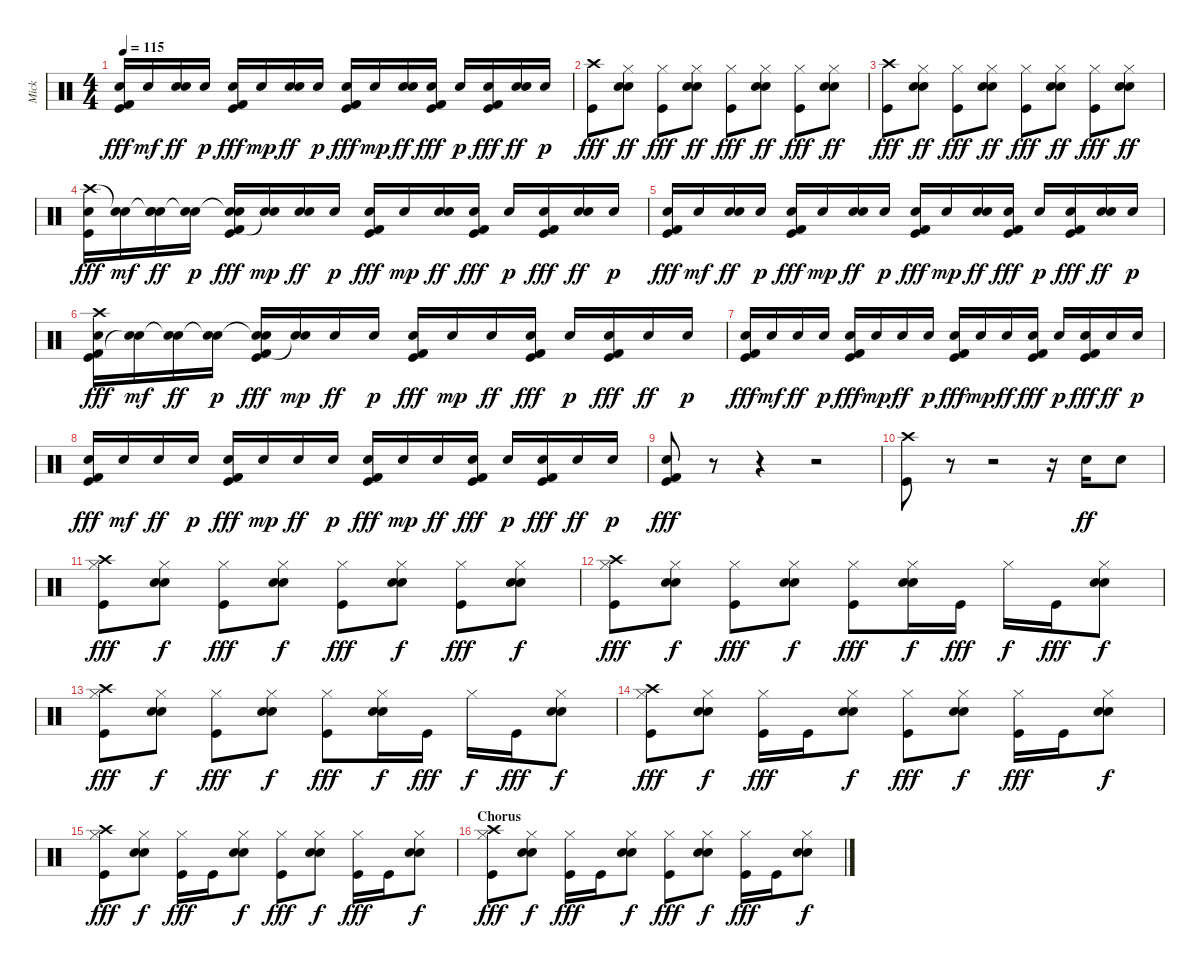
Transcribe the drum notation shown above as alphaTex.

\track ("Mick" "Mick") {instrument percussion}
\staff {score}
\articulation defaults
\ts (4 4)
\tempo 115
\clef neutral
\ks c
("Kick (hit) 2" "Electric Snare (hit)" "Kick (hit)").16{dy fff} "Electric Snare (hit)".16{dy mf} ("Hand Clap (hit)" "Electric Snare (hit)").16{dy ff} "Electric Snare (hit)".16{dy p} ("Kick (hit) 2" "Electric Snare (hit)" "Kick (hit)").16{dy fff} "Electric Snare (hit)".16{dy mp} ("Hand Clap (hit)" "Electric Snare (hit)").16{dy ff} "Electric Snare (hit)".16{dy p} ("Kick (hit) 2" "Electric Snare (hit)" "Kick (hit)").16{dy fff} "Electric Snare (hit)".16{dy mp} ("Hand Clap (hit)" "Electric Snare (hit)").16{dy ff} ("Kick (hit) 2" "Electric Snare (hit)" "Kick (hit)").16{dy fff} "Electric Snare (hit)".16{dy p} ("Kick (hit) 2" "Electric Snare (hit)" "Kick (hit)").16{dy fff} ("Hand Clap (hit)" "Electric Snare (hit)").16{dy ff} "Electric Snare (hit)".16{dy p} |
("Crash high (hit)" "Kick (hit)").8{dy fff} ("Hand Clap (hit)" "Hi-Hat (closed)" "Electric Snare (hit)").8{dy ff} ("Hi-Hat (closed)" "Kick (hit)").8{dy fff} ("Hand Clap (hit)" "Hi-Hat (closed)" "Electric Snare (hit)").8{dy ff} ("Hi-Hat (closed)" "Kick (hit)").8{dy fff} ("Hand Clap (hit)" "Hi-Hat (closed)" "Electric Snare (hit)").8{dy ff} ("Hi-Hat (closed)" "Kick (hit)").8{dy fff} ("Hand Clap (hit)" "Hi-Hat (closed)" "Electric Snare (hit)").8{dy ff} |
("Crash high (hit)" "Kick (hit)").8{dy fff} ("Hand Clap (hit)" "Hi-Hat (closed)" "Electric Snare (hit)").8{dy ff} ("Hi-Hat (closed)" "Kick (hit)").8{dy fff} ("Hand Clap (hit)" "Hi-Hat (closed)" "Electric Snare (hit)").8{dy ff} ("Hi-Hat (closed)" "Kick (hit)").8{dy fff} ("Hand Clap (hit)" "Hi-Hat (closed)" "Electric Snare (hit)").8{dy ff} ("Hi-Hat (closed)" "Kick (hit)").8{dy fff} ("Hand Clap (hit)" "Hi-Hat (closed)" "Electric Snare (hit)").8{dy ff} |
("Crash high (hit)" "Electric Snare (hit)" "Kick (hit)").16{dy fff} ("Snare (hit)"{t} "Electric Snare (hit)").16{dy mf} ("Hand Clap (hit)" "Snare (hit)"{t} "Electric Snare (hit)").16{dy ff} ("Snare (hit)"{t} "Electric Snare (hit)").16{dy p} ("Kick (hit) 2" "Snare (hit)"{t} "Electric Snare (hit)" "Kick (hit)").16{dy fff} ("Snare (hit)"{t} "Electric Snare (hit)").16{dy mp} ("Hand Clap (hit)" "Electric Snare (hit)").16{dy ff} "Electric Snare (hit)".16{dy p} ("Kick (hit) 2" "Electric Snare (hit)" "Kick (hit)").16{dy fff} "Electric Snare (hit)".16{dy mp} ("Hand Clap (hit)" "Electric Snare (hit)").16{dy ff} ("Kick (hit) 2" "Electric Snare (hit)" "Kick (hit)").16{dy fff} "Electric Snare (hit)".16{dy p} ("Kick (hit) 2" "Electric Snare (hit)" "Kick (hit)").16{dy fff} ("Hand Clap (hit)" "Electric Snare (hit)").16{dy ff} "Electric Snare (hit)".16{dy p} |
("Kick (hit) 2" "Electric Snare (hit)" "Kick (hit)").16{dy fff} "Electric Snare (hit)".16{dy mf} ("Hand Clap (hit)" "Electric Snare (hit)").16{dy ff} "Electric Snare (hit)".16{dy p} ("Kick (hit) 2" "Electric Snare (hit)" "Kick (hit)").16{dy fff} "Electric Snare (hit)".16{dy mp} ("Hand Clap (hit)" "Electric Snare (hit)").16{dy ff} "Electric Snare (hit)".16{dy p} ("Kick (hit) 2" "Electric Snare (hit)" "Kick (hit)").16{dy fff} "Electric Snare (hit)".16{dy mp} ("Hand Clap (hit)" "Electric Snare (hit)").16{dy ff} ("Kick (hit) 2" "Electric Snare (hit)" "Kick (hit)").16{dy fff} "Electric Snare (hit)".16{dy p} ("Kick (hit) 2" "Electric Snare (hit)" "Kick (hit)").16{dy fff} ("Hand Clap (hit)" "Electric Snare (hit)").16{dy ff} "Electric Snare (hit)".16{dy p} |
("Kick (hit) 2" "Crash high (hit)" "Electric Snare (hit)" "Kick (hit)").16{dy fff} ("Snare (hit)"{t} "Electric Snare (hit)").16{dy mf} ("Snare (hit)"{t} "Electric Snare (hit)").16{dy ff} ("Snare (hit)"{t} "Electric Snare (hit)").16{dy p} ("Kick (hit) 2" "Snare (hit)"{t} "Electric Snare (hit)" "Kick (hit)").16{dy fff} ("Snare (hit)"{t} "Electric Snare (hit)").16{dy mp} "Electric Snare (hit)".16{dy ff} "Electric Snare (hit)".16{dy p} ("Kick (hit) 2" "Electric Snare (hit)" "Kick (hit)").16{dy fff} "Electric Snare (hit)".16{dy mp} "Electric Snare (hit)".16{dy ff} ("Kick (hit) 2" "Electric Snare (hit)" "Kick (hit)").16{dy fff} "Electric Snare (hit)".16{dy p} ("Kick (hit) 2" "Electric Snare (hit)" "Kick (hit)").16{dy fff} "Electric Snare (hit)".16{dy ff} "Electric Snare (hit)".16{dy p} |
("Kick (hit) 2" "Electric Snare (hit)" "Kick (hit)").16{dy fff} "Electric Snare (hit)".16{dy mf} "Electric Snare (hit)".16{dy ff} "Electric Snare (hit)".16{dy p} ("Kick (hit) 2" "Electric Snare (hit)" "Kick (hit)").16{dy fff} "Electric Snare (hit)".16{dy mp} "Electric Snare (hit)".16{dy ff} "Electric Snare (hit)".16{dy p} ("Kick (hit) 2" "Electric Snare (hit)" "Kick (hit)").16{dy fff} "Electric Snare (hit)".16{dy mp} "Electric Snare (hit)".16{dy ff} ("Kick (hit) 2" "Electric Snare (hit)" "Kick (hit)").16{dy fff} "Electric Snare (hit)".16{dy p} ("Kick (hit) 2" "Electric Snare (hit)" "Kick (hit)").16{dy fff} "Electric Snare (hit)".16{dy ff} "Electric Snare (hit)".16{dy p} |
("Kick (hit) 2" "Electric Snare (hit)" "Kick (hit)").16{dy fff} "Electric Snare (hit)".16{dy mf} "Electric Snare (hit)".16{dy ff} "Electric Snare (hit)".16{dy p} ("Kick (hit) 2" "Electric Snare (hit)" "Kick (hit)").16{dy fff} "Electric Snare (hit)".16{dy mp} "Electric Snare (hit)".16{dy ff} "Electric Snare (hit)".16{dy p} ("Kick (hit) 2" "Electric Snare (hit)" "Kick (hit)").16{dy fff} "Electric Snare (hit)".16{dy mp} "Electric Snare (hit)".16{dy ff} ("Kick (hit) 2" "Electric Snare (hit)" "Kick (hit)").16{dy fff} "Electric Snare (hit)".16{dy p} ("Kick (hit) 2" "Electric Snare (hit)" "Kick (hit)").16{dy fff} "Electric Snare (hit)".16{dy ff} "Electric Snare (hit)".16{dy p} |
("Kick (hit) 2" "Electric Snare (hit)" "Kick (hit)").8{dy fff} r.8 r.4 r.2 |
("Crash high (hit)" "Kick (hit)").8 r.8 r.2 r.16 "Electric Snare (hit)".16{dy ff} "Electric Snare (hit)".8 |
("Crash high (hit)" "Hi-Hat (closed)" "Kick (hit)").8{dy fff} ("Hand Clap (hit)" "Hi-Hat (closed)" "Electric Snare (hit)").8{dy f} ("Hi-Hat (closed)" "Kick (hit)").8{dy fff} ("Hand Clap (hit)" "Hi-Hat (closed)" "Electric Snare (hit)").8{dy f} ("Hi-Hat (closed)" "Kick (hit)").8{dy fff} ("Hand Clap (hit)" "Hi-Hat (closed)" "Electric Snare (hit)").8{dy f} ("Hi-Hat (closed)" "Kick (hit)").8{dy fff} ("Hand Clap (hit)" "Hi-Hat (closed)" "Electric Snare (hit)").8{dy f} |
("Crash high (hit)" "Hi-Hat (closed)" "Kick (hit)").8{dy fff} ("Hand Clap (hit)" "Hi-Hat (closed)" "Electric Snare (hit)").8{dy f} ("Hi-Hat (closed)" "Kick (hit)").8{dy fff} ("Hand Clap (hit)" "Hi-Hat (closed)" "Electric Snare (hit)").8{dy f} ("Hi-Hat (closed)" "Kick (hit)").8{dy fff} ("Hand Clap (hit)" "Hi-Hat (closed)" "Electric Snare (hit)").16{dy f} "Kick (hit)".16{dy fff} "Hi-Hat (closed)".16{dy f} "Kick (hit)".16{dy fff} ("Hand Clap (hit)" "Hi-Hat (closed)" "Electric Snare (hit)").8{dy f} |
("Crash high (hit)" "Hi-Hat (closed)" "Kick (hit)").8{dy fff} ("Hand Clap (hit)" "Hi-Hat (closed)" "Electric Snare (hit)").8{dy f} ("Hi-Hat (closed)" "Kick (hit)").8{dy fff} ("Hand Clap (hit)" "Hi-Hat (closed)" "Electric Snare (hit)").8{dy f} ("Hi-Hat (closed)" "Kick (hit)").8{dy fff} ("Hand Clap (hit)" "Hi-Hat (closed)" "Electric Snare (hit)").16{dy f} "Kick (hit)".16{dy fff} "Hi-Hat (closed)".16{dy f} "Kick (hit)".16{dy fff} ("Hand Clap (hit)" "Hi-Hat (closed)" "Electric Snare (hit)").8{dy f} |
("Crash high (hit)" "Hi-Hat (closed)" "Kick (hit)").8{dy fff} ("Hand Clap (hit)" "Hi-Hat (closed)" "Electric Snare (hit)").8{dy f} ("Hi-Hat (closed)" "Kick (hit)").16{dy fff} "Kick (hit)".16 ("Hand Clap (hit)" "Hi-Hat (closed)" "Electric Snare (hit)").8{dy f} ("Hi-Hat (closed)" "Kick (hit)").8{dy fff} ("Hand Clap (hit)" "Hi-Hat (closed)" "Electric Snare (hit)").8{dy f} ("Hi-Hat (closed)" "Kick (hit)").16{dy fff} "Kick (hit)".16 ("Hand Clap (hit)" "Hi-Hat (closed)" "Electric Snare (hit)").8{dy f} |
("Crash high (hit)" "Hi-Hat (closed)" "Kick (hit)").8{dy fff} ("Hand Clap (hit)" "Hi-Hat (closed)" "Electric Snare (hit)").8{dy f} ("Hi-Hat (closed)" "Kick (hit)").16{dy fff} "Kick (hit)".16 ("Hand Clap (hit)" "Hi-Hat (closed)" "Electric Snare (hit)").8{dy f} ("Hi-Hat (closed)" "Kick (hit)").8{dy fff} ("Hand Clap (hit)" "Hi-Hat (closed)" "Electric Snare (hit)").8{dy f} ("Hi-Hat (closed)" "Kick (hit)").16{dy fff} "Kick (hit)".16 ("Hand Clap (hit)" "Hi-Hat (closed)" "Electric Snare (hit)").8{dy f} |
\section ("" "Chorus")
("Crash high (hit)" "Hi-Hat (closed)" "Kick (hit)").8{dy fff} ("Hand Clap (hit)" "Hi-Hat (closed)" "Electric Snare (hit)").8{dy f} ("Hi-Hat (closed)" "Kick (hit)").16{dy fff} "Kick (hit)".16 ("Hand Clap (hit)" "Hi-Hat (closed)" "Electric Snare (hit)").8{dy f} ("Hi-Hat (closed)" "Kick (hit)").8{dy fff} ("Hand Clap (hit)" "Hi-Hat (closed)" "Electric Snare (hit)").8{dy f} ("Hi-Hat (closed)" "Kick (hit)").16{dy fff} "Kick (hit)".16 ("Hand Clap (hit)" "Hi-Hat (closed)" "Electric Snare (hit)").8{dy f}
